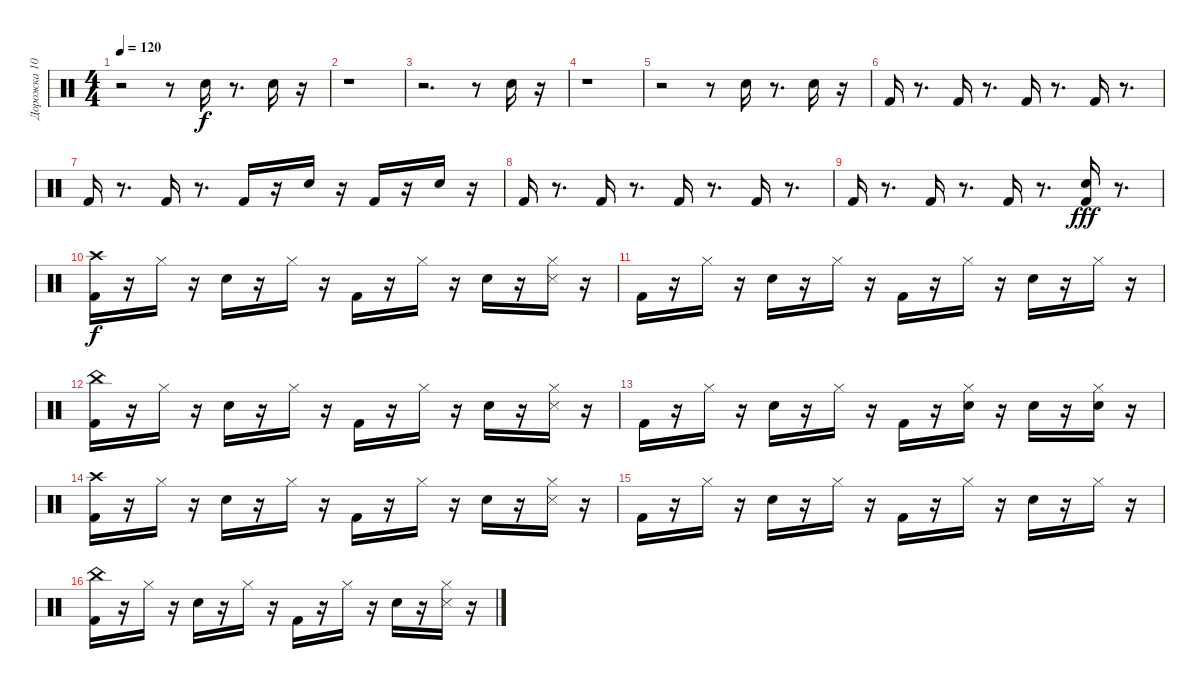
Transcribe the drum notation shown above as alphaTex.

\track ("Дорожка 10" "Дорожка 10") {instrument percussion}
\staff {score}
\articulation defaults
\ts (4 4)
\tempo 120
\clef neutral
\ks c
r.2{dy f} r.8 "Hand Clap (hit)".16 r.8{d} "Hand Clap (hit)".16 r.16 |
r.1 |
r.2{d} r.8 "Hand Clap (hit)".16 r.16 |
r.1 |
r.2 r.8 "Hand Clap (hit)".16 r.8{d} "Hand Clap (hit)".16 r.16 |
"Kick (hit) 2".16 r.8{d} "Kick (hit) 2".16 r.8{d} "Kick (hit) 2".16 r.8{d} "Kick (hit) 2".16 r.8{d} |
"Kick (hit) 2".16 r.8{d} "Kick (hit) 2".16 r.8{d} "Kick (hit) 2".16 r.16 "Hand Clap (hit)".16 r.16 "Kick (hit) 2".16 r.16 "Hand Clap (hit)".16 r.16 |
"Kick (hit) 2".16 r.8{d} "Kick (hit) 2".16 r.8{d} "Kick (hit) 2".16 r.8{d} "Kick (hit) 2".16 r.8{d} |
"Kick (hit) 2".16 r.8{d} "Kick (hit) 2".16 r.8{d} "Kick (hit) 2".16 r.8{d} ("Kick (hit) 2" "Snare (hit) 2").16{dy fff} r.8{d} |
("Kick (hit) 2" "Crash high (hit)").16{dy f} r.16 "Hi-Hat (closed)".16 r.16 "Snare (hit) 2".16 r.16 "Hi-Hat (closed)".16 r.16 "Kick (hit) 2".16 r.16 "Hi-Hat (closed)".16 r.16 "Snare (hit) 2".16 r.16 ("Snare (side stick) 3" "Hi-Hat (closed)").16 r.16 |
"Kick (hit) 2".16 r.16 "Hi-Hat (closed)".16 r.16 "Snare (hit) 2".16 r.16 "Hi-Hat (closed)".16 r.16 "Kick (hit) 2".16 r.16 "Hi-Hat (closed)".16 r.16 "Snare (hit) 2".16 r.16 "Hi-Hat (closed)".16 r.16 |
("Kick (hit) 2" "China (hit)").16 r.16 "Hi-Hat (closed)".16 r.16 "Snare (hit) 2".16 r.16 "Hi-Hat (closed)".16 r.16 "Kick (hit) 2".16 r.16 "Hi-Hat (closed)".16 r.16 "Snare (hit) 2".16 r.16 ("Snare (side stick) 3" "Hi-Hat (closed)").16 r.16 |
"Kick (hit) 2".16 r.16 "Hi-Hat (closed)".16 r.16 "Snare (hit) 2".16 r.16 "Hi-Hat (closed)".16 r.16 "Kick (hit) 2".16 r.16 ("Hand Clap (hit)" "Hi-Hat (closed)").16 r.16 "Snare (hit) 2".16 r.16 ("Hand Clap (hit)" "Hi-Hat (closed)").16 r.16 |
("Kick (hit) 2" "Crash high (hit)").16 r.16 "Hi-Hat (closed)".16 r.16 "Snare (hit) 2".16 r.16 "Hi-Hat (closed)".16 r.16 "Kick (hit) 2".16 r.16 "Hi-Hat (closed)".16 r.16 "Snare (hit) 2".16 r.16 ("Snare (side stick) 3" "Hi-Hat (closed)").16 r.16 |
"Kick (hit) 2".16 r.16 "Hi-Hat (closed)".16 r.16 "Snare (hit) 2".16 r.16 "Hi-Hat (closed)".16 r.16 "Kick (hit) 2".16 r.16 "Hi-Hat (closed)".16 r.16 "Snare (hit) 2".16 r.16 "Hi-Hat (closed)".16 r.16 |
("Kick (hit) 2" "China (hit)").16 r.16 "Hi-Hat (closed)".16 r.16 "Snare (hit) 2".16 r.16 "Hi-Hat (closed)".16 r.16 "Kick (hit) 2".16 r.16 "Hi-Hat (closed)".16 r.16 "Snare (hit) 2".16 r.16 ("Snare (side stick) 3" "Hi-Hat (closed)").16 r.16
